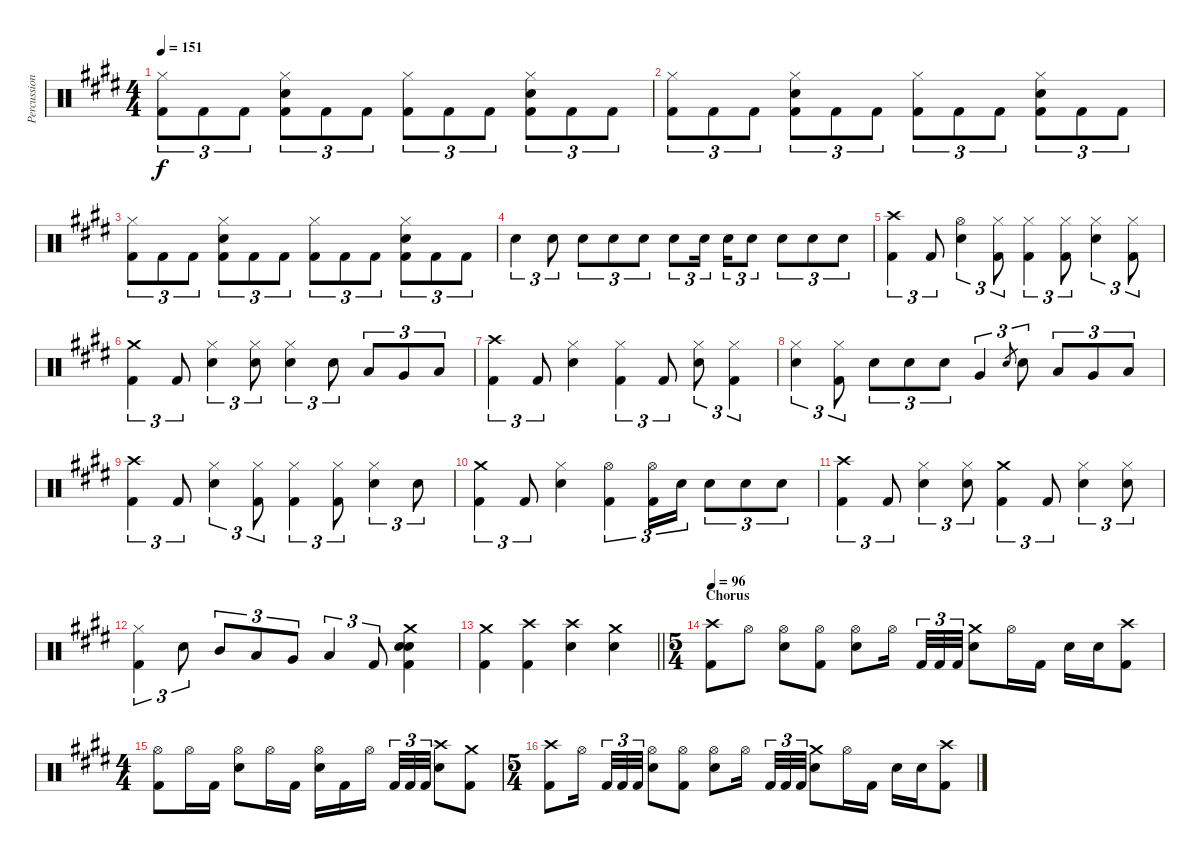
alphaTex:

\track ("Percussion" "Percussion") {instrument percussion}
\staff {score}
\articulation defaults
\ts (4 4)
\tempo 151
\clef neutral
\ks e
("Hi-Hat (closed)" "Kick (hit) 2").8{tu (3 2) dy f} "Kick (hit) 2".8{tu (3 2)} "Kick (hit) 2".8{tu (3 2)} ("Hi-Hat (closed)" "Snare (hit) 2" "Kick (hit) 2").8{tu (3 2)} "Kick (hit) 2".8{tu (3 2)} "Kick (hit) 2".8{tu (3 2)} ("Hi-Hat (closed)" "Kick (hit) 2").8{tu (3 2)} "Kick (hit) 2".8{tu (3 2)} "Kick (hit) 2".8{tu (3 2)} ("Hi-Hat (closed)" "Snare (hit) 2" "Kick (hit) 2").8{tu (3 2)} "Kick (hit) 2".8{tu (3 2)} "Kick (hit) 2".8{tu (3 2)} |
("Hi-Hat (closed)" "Kick (hit) 2").8{tu (3 2)} "Kick (hit) 2".8{tu (3 2)} "Kick (hit) 2".8{tu (3 2)} ("Hi-Hat (closed)" "Snare (hit) 2" "Kick (hit) 2").8{tu (3 2)} "Kick (hit) 2".8{tu (3 2)} "Kick (hit) 2".8{tu (3 2)} ("Hi-Hat (closed)" "Kick (hit) 2").8{tu (3 2)} "Kick (hit) 2".8{tu (3 2)} "Kick (hit) 2".8{tu (3 2)} ("Hi-Hat (closed)" "Snare (hit) 2" "Kick (hit) 2").8{tu (3 2)} "Kick (hit) 2".8{tu (3 2)} "Kick (hit) 2".8{tu (3 2)} |
("Hi-Hat (closed)" "Kick (hit) 2").8{tu (3 2)} "Kick (hit) 2".8{tu (3 2)} "Kick (hit) 2".8{tu (3 2)} ("Hi-Hat (closed)" "Snare (hit) 2" "Kick (hit) 2").8{tu (3 2)} "Kick (hit) 2".8{tu (3 2)} "Kick (hit) 2".8{tu (3 2)} ("Hi-Hat (closed)" "Kick (hit) 2").8{tu (3 2)} "Kick (hit) 2".8{tu (3 2)} "Kick (hit) 2".8{tu (3 2)} ("Hi-Hat (closed)" "Snare (hit) 2" "Kick (hit) 2").8{tu (3 2)} "Kick (hit) 2".8{tu (3 2)} "Kick (hit) 2".8{tu (3 2)} |
"Snare (hit) 2".4{tu (3 2)} "Snare (hit) 2".8{tu (3 2)} "Snare (hit) 2".8{tu (3 2)} "Snare (hit) 2".8{tu (3 2)} "Snare (hit) 2".8{tu (3 2)} "Snare (hit) 2".8{tu (3 2)} "Snare (hit) 2".16{tu (3 2) beam splitsecondary} "Snare (hit) 2".16{tu (3 2)} "Snare (hit) 2".8{tu (3 2)} "Snare (hit) 2".8{tu (3 2)} "Snare (hit) 2".8{tu (3 2)} "Snare (hit) 2".8{tu (3 2)} |
("Crash high (hit)" "Kick (hit) 2").4{tu (3 2)} "Kick (hit) 2".8{tu (3 2)} ("Hi-Hat (open)" "Snare (hit) 2").4{tu (3 2)} ("Hi-Hat (closed)" "Kick (hit) 2").8{tu (3 2)} ("Hi-Hat (closed)" "Kick (hit) 2").4{tu (3 2)} ("Hi-Hat (closed)" "Kick (hit) 2").8{tu (3 2)} ("Hi-Hat (closed)" "Snare (hit) 2").4{tu (3 2)} ("Hi-Hat (closed)" "Kick (hit) 2").8{tu (3 2)} |
("Crash medium (hit)" "Kick (hit) 2").4{tu (3 2)} "Kick (hit) 2".8{tu (3 2)} ("Hi-Hat (closed)" "Snare (hit) 2").4{tu (3 2)} ("Hi-Hat (closed)" "Snare (hit) 2").8{tu (3 2)} ("Hi-Hat (closed)" "Snare (hit) 2").4{tu (3 2)} "Snare (hit) 2".8{tu (3 2)} "Low Tom (hit)".8{tu (3 2)} "Very Low Tom (hit)".8{tu (3 2)} "Low Floor Tom (hit)".8{tu (3 2)} |
("Crash high (hit)" "Kick (hit) 2").4{tu (3 2)} "Kick (hit) 2".8{tu (3 2)} ("Hi-Hat (closed)" "Snare (hit) 2").4 ("Hi-Hat (closed)" "Kick (hit) 2").4{tu (3 2)} "Kick (hit) 2".8{tu (3 2)} ("Hi-Hat (closed)" "Snare (hit) 2").8{tu (3 2)} ("Hi-Hat (closed)" "Kick (hit) 2").4{tu (3 2)} |
("Hi-Hat (closed)" "Snare (hit) 2").4{tu (3 2)} ("Hi-Hat (closed)" "Kick (hit) 2").8{tu (3 2)} "Snare (hit) 2".8{tu (3 2)} "Snare (hit) 2".8{tu (3 2)} "Snare (hit) 2".8{tu (3 2)} "Very Low Tom (hit)".4{tu (3 2)} "Snare (hit) 2".8{gr} "Snare (hit) 2".8{tu (3 2)} "Low Tom (hit)".8{tu (3 2)} "Very Low Tom (hit)".8{tu (3 2)} "Low Floor Tom (hit)".8{tu (3 2)} |
("Crash high (hit)" "Kick (hit) 2").4{tu (3 2)} "Kick (hit) 2".8{tu (3 2)} ("Hi-Hat (closed)" "Snare (hit) 2").4{tu (3 2)} ("Hi-Hat (closed)" "Kick (hit) 2").8{tu (3 2)} ("Hi-Hat (closed)" "Kick (hit) 2").4{tu (3 2)} ("Hi-Hat (closed)" "Kick (hit) 2").8{tu (3 2)} ("Hi-Hat (closed)" "Snare (hit) 2").4{tu (3 2)} "Snare (hit) 2".8{tu (3 2)} |
("Crash medium (hit)" "Kick (hit) 2").4{tu (3 2)} "Kick (hit) 2".8{tu (3 2)} ("Hi-Hat (closed)" "Snare (hit) 2").4 ("Hi-Hat (open)" "Kick (hit) 2").4{tu (3 2)} ("Hi-Hat (open)" "Kick (hit) 2").16{tu (3 2)} "Snare (hit) 2".16{tu (3 2)} "Snare (hit) 2".8{tu (3 2)} "Snare (hit) 2".8{tu (3 2)} "Snare (hit) 2".8{tu (3 2)} |
("Crash high (hit)" "Kick (hit) 2").4{tu (3 2)} "Kick (hit) 2".8{tu (3 2)} ("Hi-Hat (closed)" "Snare (hit) 2").4{tu (3 2)} ("Hi-Hat (closed)" "Snare (hit) 2").8{tu (3 2)} ("Crash medium (hit)" "Kick (hit) 2").4{tu (3 2)} "Kick (hit) 2".8{tu (3 2)} ("Hi-Hat (closed)" "Snare (hit) 2").4{tu (3 2)} ("Hi-Hat (closed)" "Snare (hit) 2").8{tu (3 2)} |
("Hi-Hat (closed)" "Kick (hit) 2").4{tu (3 2)} "Snare (hit) 2".8{tu (3 2)} "Mid Tom (hit)".8{tu (3 2)} "Low Tom (hit)".8{tu (3 2)} "Very Low Tom (hit)".8{tu (3 2)} "Low Floor Tom (hit)".4{tu (3 2)} "Kick (hit) 2".8{tu (3 2)} ("Crash medium (hit)" "Snare (hit) 2" "Snare (hit) 2" "Kick (hit) 2").4 |
\barLineRight lightlight
("Crash medium (hit)" "Kick (hit) 2").4 ("Crash high (hit)" "Kick (hit) 2").4 ("Crash high (hit)" "Snare (hit) 2").4 ("Crash medium (hit)" "Snare (hit) 2").4 |
\ts (5 4)
\section ("" "Chorus")
\tempo 96
("Crash high (hit)" "Kick (hit) 2").8 "Hi-Hat (open)".8 ("Hi-Hat (open)" "Snare (hit) 2").8 ("Hi-Hat (open)" "Kick (hit) 2").8 ("Hi-Hat (open)" "Snare (hit) 2").8 "Hi-Hat (open)".16{beam splitsecondary} "Kick (hit) 2".32{tu (3 2)} "Kick (hit) 2".32{tu (3 2)} "Kick (hit) 2".32{tu (3 2)} ("Crash medium (hit)" "Snare (hit) 2").8 "Hi-Hat (open)".16 "Kick (hit) 2".16 "Snare (hit) 2".16 "Snare (hit) 2".16 ("Crash high (hit)" "Kick (hit) 2").8 |
\ts (4 4)
("Hi-Hat (open)" "Kick (hit) 2").8 "Hi-Hat (open)".16 "Kick (hit) 2".16 ("Hi-Hat (open)" "Snare (hit) 2").8 "Hi-Hat (open)".16 "Kick (hit) 2".16 ("Hi-Hat (open)" "Snare (hit) 2").16 "Kick (hit) 2".16 "Hi-Hat (open)".16{beam splitsecondary} "Kick (hit) 2".32{tu (3 2)} "Kick (hit) 2".32{tu (3 2)} "Kick (hit) 2".32{tu (3 2)} ("Crash high (hit)" "Snare (hit) 2").8 ("Crash medium (hit)" "Kick (hit) 2").8 |
\ts (5 4)
("Crash high (hit)" "Kick (hit) 2").8 "Hi-Hat (open)".16{beam splitsecondary} "Kick (hit) 2".32{tu (3 2)} "Kick (hit) 2".32{tu (3 2)} "Kick (hit) 2".32{tu (3 2)} ("Hi-Hat (open)" "Snare (hit) 2").8 ("Hi-Hat (open)" "Kick (hit) 2").8 ("Hi-Hat (open)" "Snare (hit) 2").8 "Hi-Hat (open)".16{beam splitsecondary} "Kick (hit) 2".32{tu (3 2)} "Kick (hit) 2".32{tu (3 2)} "Kick (hit) 2".32{tu (3 2)} ("Crash medium (hit)" "Snare (hit) 2").8 "Hi-Hat (open)".16 "Kick (hit) 2".16 "Snare (hit) 2".16 "Snare (hit) 2".16 ("Crash high (hit)" "Kick (hit) 2").8
